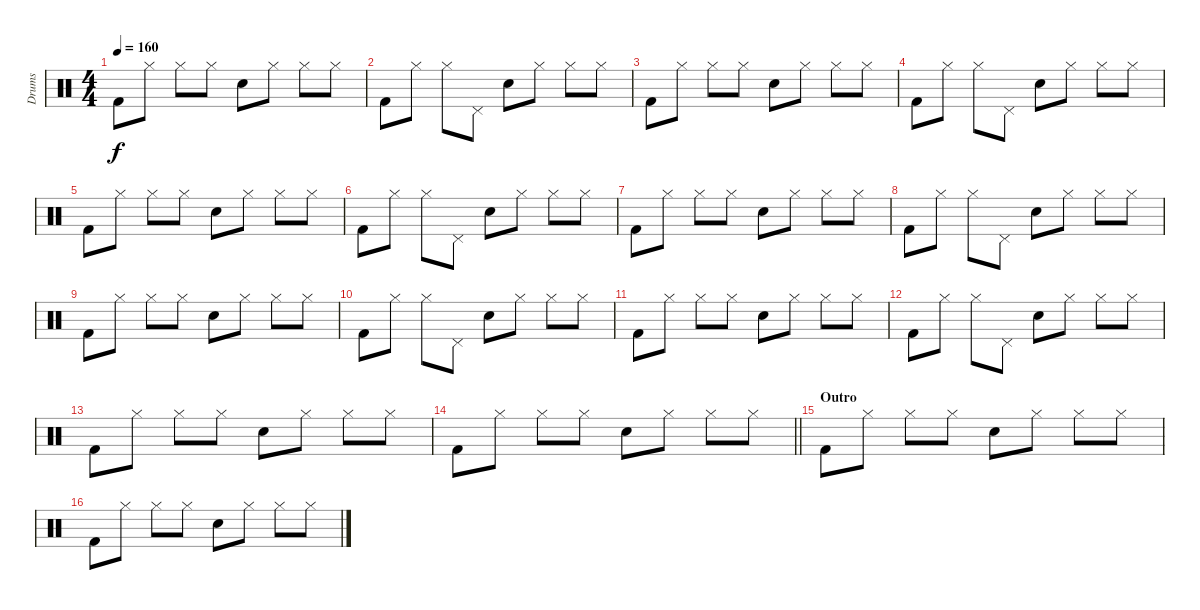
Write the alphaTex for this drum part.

\track ("Drums" "Drums") {instrument percussion}
\staff {score}
\articulation defaults
\ts (4 4)
\tempo 160
\clef neutral
\ks c "Kick (hit) 2".8{dy f} "Hi-Hat (closed)".8 "Hi-Hat (closed)".8 "Hi-Hat (closed)".8 "Electric Snare (hit)".8 "Hi-Hat (closed)".8 "Hi-Hat (closed)".8 "Hi-Hat (closed)".8
|
"Kick (hit) 2".8 "Hi-Hat (closed)".8 "Hi-Hat (closed)".8 "Pedal Hi-Hat (hit)".8 "Electric Snare (hit)".8 "Hi-Hat (closed)".8 "Hi-Hat (closed)".8 "Hi-Hat (closed)".8 |
"Kick (hit) 2".8 "Hi-Hat (closed)".8 "Hi-Hat (closed)".8 "Hi-Hat (closed)".8 "Electric Snare (hit)".8 "Hi-Hat (closed)".8 "Hi-Hat (closed)".8 "Hi-Hat (closed)".8 |
"Kick (hit) 2".8 "Hi-Hat (closed)".8 "Hi-Hat (closed)".8 "Pedal Hi-Hat (hit)".8 "Electric Snare (hit)".8 "Hi-Hat (closed)".8 "Hi-Hat (closed)".8 "Hi-Hat (closed)".8 |
"Kick (hit) 2".8 "Hi-Hat (closed)".8 "Hi-Hat (closed)".8 "Hi-Hat (closed)".8 "Electric Snare (hit)".8 "Hi-Hat (closed)".8 "Hi-Hat (closed)".8 "Hi-Hat (closed)".8 |
"Kick (hit) 2".8 "Hi-Hat (closed)".8 "Hi-Hat (closed)".8 "Pedal Hi-Hat (hit)".8 "Electric Snare (hit)".8 "Hi-Hat (closed)".8 "Hi-Hat (closed)".8 "Hi-Hat (closed)".8 |
"Kick (hit) 2".8 "Hi-Hat (closed)".8 "Hi-Hat (closed)".8 "Hi-Hat (closed)".8 "Electric Snare (hit)".8 "Hi-Hat (closed)".8 "Hi-Hat (closed)".8 "Hi-Hat (closed)".8 |
"Kick (hit) 2".8 "Hi-Hat (closed)".8 "Hi-Hat (closed)".8 "Pedal Hi-Hat (hit)".8 "Electric Snare (hit)".8 "Hi-Hat (closed)".8 "Hi-Hat (closed)".8 "Hi-Hat (closed)".8 |
"Kick (hit) 2".8 "Hi-Hat (closed)".8 "Hi-Hat (closed)".8 "Hi-Hat (closed)".8 "Electric Snare (hit)".8 "Hi-Hat (closed)".8 "Hi-Hat (closed)".8 "Hi-Hat (closed)".8 |
"Kick (hit) 2".8 "Hi-Hat (closed)".8 "Hi-Hat (closed)".8 "Pedal Hi-Hat (hit)".8 "Electric Snare (hit)".8 "Hi-Hat (closed)".8 "Hi-Hat (closed)".8 "Hi-Hat (closed)".8 |
"Kick (hit) 2".8 "Hi-Hat (closed)".8 "Hi-Hat (closed)".8 "Hi-Hat (closed)".8 "Electric Snare (hit)".8 "Hi-Hat (closed)".8 "Hi-Hat (closed)".8 "Hi-Hat (closed)".8 |
"Kick (hit) 2".8 "Hi-Hat (closed)".8 "Hi-Hat (closed)".8 "Pedal Hi-Hat (hit)".8 "Electric Snare (hit)".8 "Hi-Hat (closed)".8 "Hi-Hat (closed)".8 "Hi-Hat (closed)".8 |
"Kick (hit) 2".8 "Hi-Hat (closed)".8 "Hi-Hat (closed)".8 "Hi-Hat (closed)".8 "Electric Snare (hit)".8 "Hi-Hat (closed)".8 "Hi-Hat (closed)".8 "Hi-Hat (closed)".8 |
\barLineRight lightlight "Kick (hit) 2".8 "Hi-Hat (closed)".8 "Hi-Hat (closed)".8 "Hi-Hat (closed)".8 "Electric Snare (hit)".8 "Hi-Hat (closed)".8 "Hi-Hat (closed)".8 "Hi-Hat (closed)".8
|
\section ("" "Outro")
"Kick (hit) 2".8 "Hi-Hat (closed)".8 "Hi-Hat (closed)".8 "Hi-Hat (closed)".8 "Electric Snare (hit)".8 "Hi-Hat (closed)".8 "Hi-Hat (closed)".8 "Hi-Hat (closed)".8 |
"Kick (hit) 2".8 "Hi-Hat (closed)".8 "Hi-Hat (closed)".8 "Hi-Hat (closed)".8 "Electric Snare (hit)".8 "Hi-Hat (closed)".8 "Hi-Hat (closed)".8 "Hi-Hat (closed)".8
